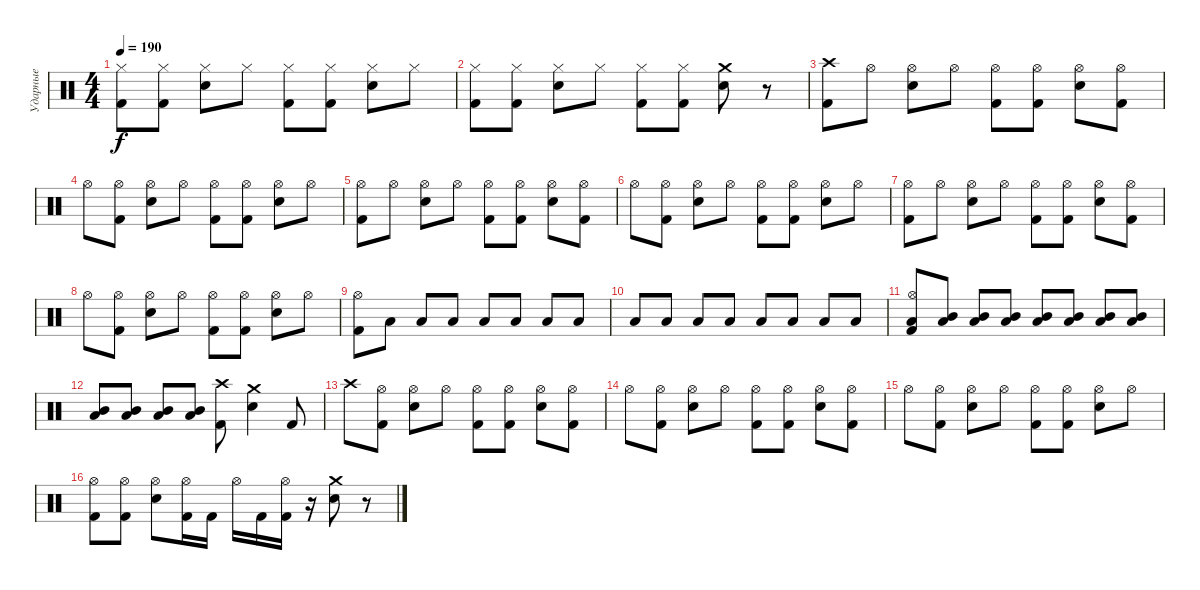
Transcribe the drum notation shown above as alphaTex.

\track ("Ударные" "Ударные") {instrument percussion}
\staff {score}
\articulation defaults
\ts (4 4)
\tempo 190
\clef neutral
\ks c
("Hi-Hat (closed)" "Kick (hit) 2").8{dy f} ("Hi-Hat (closed)" "Kick (hit) 2").8 ("Hi-Hat (closed)" "Electric Snare (hit)").8 "Hi-Hat (closed)".8 ("Hi-Hat (closed)" "Kick (hit) 2").8 ("Hi-Hat (closed)" "Kick (hit) 2").8 ("Hi-Hat (closed)" "Electric Snare (hit)").8 "Hi-Hat (closed)".8 |
("Hi-Hat (closed)" "Kick (hit) 2").8 ("Hi-Hat (closed)" "Kick (hit) 2").8 ("Hi-Hat (closed)" "Electric Snare (hit)").8 "Hi-Hat (closed)".8 ("Hi-Hat (closed)" "Kick (hit) 2").8 ("Hi-Hat (closed)" "Kick (hit) 2").8 ("Crash medium (hit)" "Electric Snare (hit)").8 r.8 |
("Crash high (hit)" "Kick (hit) 2").8 "Hi-Hat (open)".8 ("Hi-Hat (open)" "Electric Snare (hit)").8 "Hi-Hat (open)".8 ("Hi-Hat (open)" "Kick (hit) 2").8 ("Hi-Hat (open)" "Kick (hit) 2").8 ("Hi-Hat (open)" "Electric Snare (hit)").8 ("Hi-Hat (open)" "Kick (hit) 2").8 |
"Hi-Hat (open)".8 ("Hi-Hat (open)" "Kick (hit) 2").8 ("Hi-Hat (open)" "Electric Snare (hit)").8 "Hi-Hat (open)".8 ("Hi-Hat (open)" "Kick (hit) 2").8 ("Hi-Hat (open)" "Kick (hit) 2").8 ("Hi-Hat (open)" "Electric Snare (hit)").8 "Hi-Hat (open)".8 |
("Hi-Hat (open)" "Kick (hit) 2").8 "Hi-Hat (open)".8 ("Hi-Hat (open)" "Electric Snare (hit)").8 "Hi-Hat (open)".8 ("Hi-Hat (open)" "Kick (hit) 2").8 ("Hi-Hat (open)" "Kick (hit) 2").8 ("Hi-Hat (open)" "Electric Snare (hit)").8 ("Hi-Hat (open)" "Kick (hit) 2").8 |
"Hi-Hat (open)".8 ("Hi-Hat (open)" "Kick (hit) 2").8 ("Hi-Hat (open)" "Electric Snare (hit)").8 "Hi-Hat (open)".8 ("Hi-Hat (open)" "Kick (hit) 2").8 ("Hi-Hat (open)" "Kick (hit) 2").8 ("Hi-Hat (open)" "Electric Snare (hit)").8 "Hi-Hat (open)".8 |
("Hi-Hat (open)" "Kick (hit) 2").8 "Hi-Hat (open)".8 ("Hi-Hat (open)" "Electric Snare (hit)").8 "Hi-Hat (open)".8 ("Hi-Hat (open)" "Kick (hit) 2").8 ("Hi-Hat (open)" "Kick (hit) 2").8 ("Hi-Hat (open)" "Electric Snare (hit)").8 ("Hi-Hat (open)" "Kick (hit) 2").8 |
"Hi-Hat (open)".8 ("Hi-Hat (open)" "Kick (hit) 2").8 ("Hi-Hat (open)" "Electric Snare (hit)").8 "Hi-Hat (open)".8 ("Hi-Hat (open)" "Kick (hit) 2").8 ("Hi-Hat (open)" "Kick (hit) 2").8 ("Hi-Hat (open)" "Electric Snare (hit)").8 "Hi-Hat (open)".8 |
("Hi-Hat (open)" "Kick (hit) 2").8 "Low Tom (hit)".8 "Low Tom (hit)".8 "Low Tom (hit)".8 "Low Tom (hit)".8 "Low Tom (hit)".8 "Low Tom (hit)".8 "Low Tom (hit)".8 |
"Low Tom (hit)".8 "Low Tom (hit)".8 "Low Tom (hit)".8 "Low Tom (hit)".8 "Low Tom (hit)".8 "Low Tom (hit)".8 "Low Tom (hit)".8 "Low Tom (hit)".8 |
("Hi-Hat (open)" "Kick (hit) 2" "Low Tom (hit)").8 ("Mid Tom (hit)" "Low Tom (hit)").8 ("Mid Tom (hit)" "Low Tom (hit)").8 ("Mid Tom (hit)" "Low Tom (hit)").8 ("Mid Tom (hit)" "Low Tom (hit)").8 ("Mid Tom (hit)" "Low Tom (hit)").8 ("Mid Tom (hit)" "Low Tom (hit)").8 ("Mid Tom (hit)" "Low Tom (hit)").8 |
("Mid Tom (hit)" "Low Tom (hit)").8 ("Mid Tom (hit)" "Low Tom (hit)").8 ("Mid Tom (hit)" "Low Tom (hit)").8 ("Mid Tom (hit)" "Low Tom (hit)").8 ("Crash high (hit)" "Kick (hit) 2").8 ("Crash medium (hit)" "Electric Snare (hit)").4 "Kick (hit) 2".8 |
"Crash high (hit)".8 ("Hi-Hat (open)" "Kick (hit) 2").8 ("Hi-Hat (open)" "Electric Snare (hit)").8 "Hi-Hat (open)".8 ("Hi-Hat (open)" "Kick (hit) 2").8 ("Hi-Hat (open)" "Kick (hit) 2").8 ("Hi-Hat (open)" "Electric Snare (hit)").8 ("Hi-Hat (open)" "Kick (hit) 2").8 |
"Hi-Hat (open)".8 ("Hi-Hat (open)" "Kick (hit) 2").8 ("Hi-Hat (open)" "Electric Snare (hit)").8 "Hi-Hat (open)".8 ("Hi-Hat (open)" "Kick (hit) 2").8 ("Hi-Hat (open)" "Kick (hit) 2").8 ("Hi-Hat (open)" "Electric Snare (hit)").8 ("Hi-Hat (open)" "Kick (hit) 2").8 |
"Hi-Hat (open)".8 ("Hi-Hat (open)" "Kick (hit) 2").8 ("Hi-Hat (open)" "Electric Snare (hit)").8 "Hi-Hat (open)".8 ("Hi-Hat (open)" "Kick (hit) 2").8 ("Hi-Hat (open)" "Kick (hit) 2").8 ("Hi-Hat (open)" "Electric Snare (hit)").8 "Hi-Hat (open)".8 |
("Hi-Hat (open)" "Kick (hit) 2").8 ("Hi-Hat (open)" "Kick (hit) 2").8 ("Hi-Hat (open)" "Electric Snare (hit)").8 ("Hi-Hat (open)" "Kick (hit) 2").16 "Kick (hit) 2".16 "Hi-Hat (open)".16 "Kick (hit) 2".16 ("Hi-Hat (open)" "Kick (hit) 2").16 r.16 ("Crash medium (hit)" "Electric Snare (hit)").8 r.8
